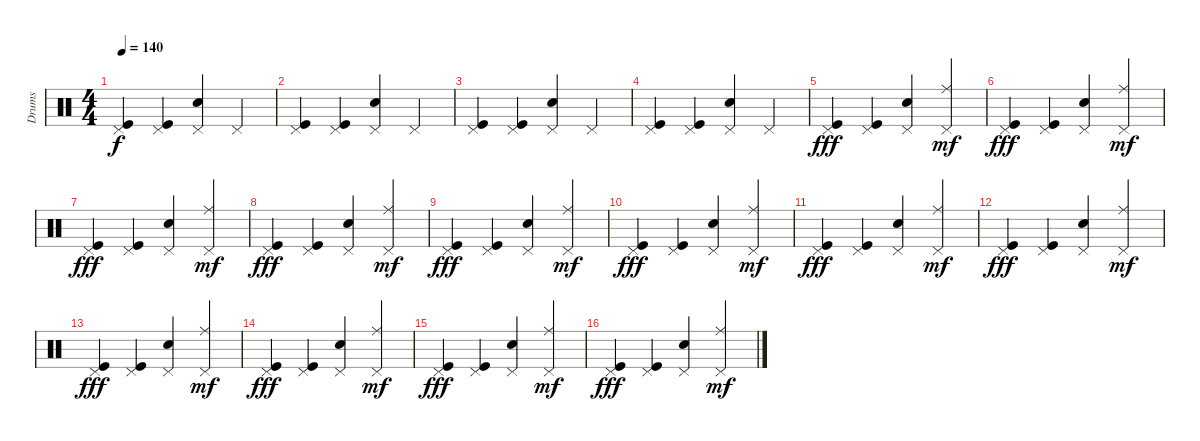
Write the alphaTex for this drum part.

\track ("Drums" "Drums") {instrument percussion}
\staff {score}
\articulation defaults
\ts (4 4)
\tempo 140
\clef neutral
\ks c
("Kick (hit)" "Pedal Hi-Hat (hit)").4{dy f} ("Kick (hit)" "Pedal Hi-Hat (hit)").4 ("Snare (hit) 2" "Pedal Hi-Hat (hit)").4 "Pedal Hi-Hat (hit)".4 |
("Kick (hit)" "Pedal Hi-Hat (hit)").4 ("Kick (hit)" "Pedal Hi-Hat (hit)").4 ("Snare (hit) 2" "Pedal Hi-Hat (hit)").4 "Pedal Hi-Hat (hit)".4 |
("Kick (hit)" "Pedal Hi-Hat (hit)").4 ("Kick (hit)" "Pedal Hi-Hat (hit)").4 ("Snare (hit) 2" "Pedal Hi-Hat (hit)").4 "Pedal Hi-Hat (hit)".4 |
("Kick (hit)" "Pedal Hi-Hat (hit)").4 ("Kick (hit)" "Pedal Hi-Hat (hit)").4 ("Snare (hit) 2" "Pedal Hi-Hat (hit)").4 "Pedal Hi-Hat (hit)".4 |
("Kick (hit)" "Pedal Hi-Hat (hit)").4{dy fff} ("Kick (hit)" "Pedal Hi-Hat (hit)").4 ("Snare (hit) 2" "Pedal Hi-Hat (hit)").4 ("Ride (middle)" "Pedal Hi-Hat (hit)").4{dy mf} |
("Kick (hit)" "Pedal Hi-Hat (hit)").4{dy fff} ("Kick (hit)" "Pedal Hi-Hat (hit)").4 ("Snare (hit) 2" "Pedal Hi-Hat (hit)").4 ("Ride (middle)" "Pedal Hi-Hat (hit)").4{dy mf} |
("Kick (hit)" "Pedal Hi-Hat (hit)").4{dy fff} ("Kick (hit)" "Pedal Hi-Hat (hit)").4 ("Snare (hit) 2" "Pedal Hi-Hat (hit)").4 ("Ride (middle)" "Pedal Hi-Hat (hit)").4{dy mf} |
("Kick (hit)" "Pedal Hi-Hat (hit)").4{dy fff} ("Kick (hit)" "Pedal Hi-Hat (hit)").4 ("Snare (hit) 2" "Pedal Hi-Hat (hit)").4 ("Ride (middle)" "Pedal Hi-Hat (hit)").4{dy mf} |
("Kick (hit)" "Pedal Hi-Hat (hit)").4{dy fff} ("Kick (hit)" "Pedal Hi-Hat (hit)").4 ("Snare (hit) 2" "Pedal Hi-Hat (hit)").4 ("Ride (middle)" "Pedal Hi-Hat (hit)").4{dy mf} |
("Kick (hit)" "Pedal Hi-Hat (hit)").4{dy fff} ("Kick (hit)" "Pedal Hi-Hat (hit)").4 ("Snare (hit) 2" "Pedal Hi-Hat (hit)").4 ("Ride (middle)" "Pedal Hi-Hat (hit)").4{dy mf} |
("Kick (hit)" "Pedal Hi-Hat (hit)").4{dy fff} ("Kick (hit)" "Pedal Hi-Hat (hit)").4 ("Snare (hit) 2" "Pedal Hi-Hat (hit)").4 ("Ride (middle)" "Pedal Hi-Hat (hit)").4{dy mf} |
("Kick (hit)" "Pedal Hi-Hat (hit)").4{dy fff} ("Kick (hit)" "Pedal Hi-Hat (hit)").4 ("Snare (hit) 2" "Pedal Hi-Hat (hit)").4 ("Ride (middle)" "Pedal Hi-Hat (hit)").4{dy mf} |
("Kick (hit)" "Pedal Hi-Hat (hit)").4{dy fff} ("Kick (hit)" "Pedal Hi-Hat (hit)").4 ("Snare (hit) 2" "Pedal Hi-Hat (hit)").4 ("Ride (middle)" "Pedal Hi-Hat (hit)").4{dy mf} |
("Kick (hit)" "Pedal Hi-Hat (hit)").4{dy fff} ("Kick (hit)" "Pedal Hi-Hat (hit)").4 ("Snare (hit) 2" "Pedal Hi-Hat (hit)").4 ("Ride (middle)" "Pedal Hi-Hat (hit)").4{dy mf} |
("Kick (hit)" "Pedal Hi-Hat (hit)").4{dy fff} ("Kick (hit)" "Pedal Hi-Hat (hit)").4 ("Snare (hit) 2" "Pedal Hi-Hat (hit)").4 ("Ride (middle)" "Pedal Hi-Hat (hit)").4{dy mf} |
("Kick (hit)" "Pedal Hi-Hat (hit)").4{dy fff} ("Kick (hit)" "Pedal Hi-Hat (hit)").4 ("Snare (hit) 2" "Pedal Hi-Hat (hit)").4 ("Ride (middle)" "Pedal Hi-Hat (hit)").4{dy mf}
